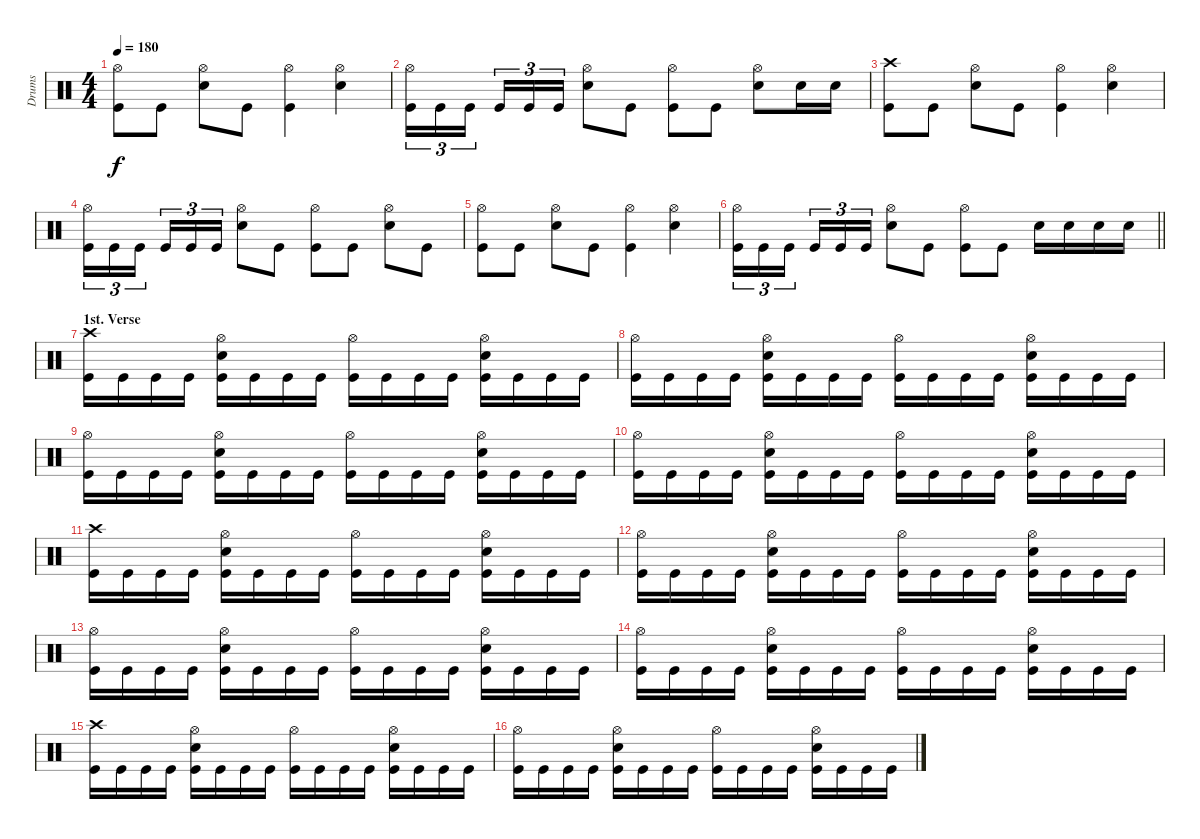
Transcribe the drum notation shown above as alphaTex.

\track ("Drums" "Drums") {instrument percussion}
\staff {score}
\articulation defaults
\ts (4 4)
\tempo 180
\clef neutral
\ks c
("Hi-Hat (open)" "Kick (hit)").8{dy f} "Kick (hit)".8 ("Hi-Hat (open)" "Electric Snare (hit)").8 "Kick (hit)".8 ("Hi-Hat (open)" "Kick (hit)").4 ("Hi-Hat (open)" "Electric Snare (hit)").4 |
("Hi-Hat (open)" "Kick (hit)").16{tu (3 2)} "Kick (hit)".16{tu (3 2)} "Kick (hit)".16{tu (3 2) beam splitsecondary} "Kick (hit)".16{tu (3 2)} "Kick (hit)".16{tu (3 2)} "Kick (hit)".16{tu (3 2)} ("Hi-Hat (open)" "Electric Snare (hit)").8 "Kick (hit)".8 ("Hi-Hat (open)" "Kick (hit)").8 "Kick (hit)".8 ("Hi-Hat (open)" "Electric Snare (hit)").8 "Electric Snare (hit)".16 "Electric Snare (hit)".16 |
("Crash high (hit)" "Kick (hit)").8 "Kick (hit)".8 ("Hi-Hat (open)" "Electric Snare (hit)").8 "Kick (hit)".8 ("Hi-Hat (open)" "Kick (hit)").4 ("Hi-Hat (open)" "Electric Snare (hit)").4 |
("Hi-Hat (open)" "Kick (hit)").16{tu (3 2)} "Kick (hit)".16{tu (3 2)} "Kick (hit)".16{tu (3 2) beam splitsecondary} "Kick (hit)".16{tu (3 2)} "Kick (hit)".16{tu (3 2)} "Kick (hit)".16{tu (3 2)} ("Hi-Hat (open)" "Electric Snare (hit)").8 "Kick (hit)".8 ("Hi-Hat (open)" "Kick (hit)").8 "Kick (hit)".8 ("Hi-Hat (open)" "Electric Snare (hit)").8 "Kick (hit)".8 |
("Hi-Hat (open)" "Kick (hit)").8 "Kick (hit)".8 ("Hi-Hat (open)" "Electric Snare (hit)").8 "Kick (hit)".8 ("Hi-Hat (open)" "Kick (hit)").4 ("Hi-Hat (open)" "Electric Snare (hit)").4 |
\barLineRight lightlight
("Hi-Hat (open)" "Kick (hit)").16{tu (3 2)} "Kick (hit)".16{tu (3 2)} "Kick (hit)".16{tu (3 2) beam splitsecondary} "Kick (hit)".16{tu (3 2)} "Kick (hit)".16{tu (3 2)} "Kick (hit)".16{tu (3 2)} ("Hi-Hat (open)" "Electric Snare (hit)").8 "Kick (hit)".8 ("Hi-Hat (open)" "Kick (hit)").8 "Kick (hit)".8 "Electric Snare (hit)".16 "Electric Snare (hit)".16 "Electric Snare (hit)".16 "Electric Snare (hit)".16 |
\section ("" "1st. Verse")
("Crash high (hit)" "Kick (hit)").16 "Kick (hit)".16 "Kick (hit)".16 "Kick (hit)".16 ("Hi-Hat (open)" "Electric Snare (hit)" "Kick (hit)").16 "Kick (hit)".16 "Kick (hit)".16 "Kick (hit)".16 ("Hi-Hat (open)" "Kick (hit)").16 "Kick (hit)".16 "Kick (hit)".16 "Kick (hit)".16 ("Hi-Hat (open)" "Electric Snare (hit)" "Kick (hit)").16 "Kick (hit)".16 "Kick (hit)".16 "Kick (hit)".16 |
("Hi-Hat (open)" "Kick (hit)").16 "Kick (hit)".16 "Kick (hit)".16 "Kick (hit)".16 ("Hi-Hat (open)" "Electric Snare (hit)" "Kick (hit)").16 "Kick (hit)".16 "Kick (hit)".16 "Kick (hit)".16 ("Hi-Hat (open)" "Kick (hit)").16 "Kick (hit)".16 "Kick (hit)".16 "Kick (hit)".16 ("Hi-Hat (open)" "Electric Snare (hit)" "Kick (hit)").16 "Kick (hit)".16 "Kick (hit)".16 "Kick (hit)".16 |
("Hi-Hat (open)" "Kick (hit)").16 "Kick (hit)".16 "Kick (hit)".16 "Kick (hit)".16 ("Hi-Hat (open)" "Electric Snare (hit)" "Kick (hit)").16 "Kick (hit)".16 "Kick (hit)".16 "Kick (hit)".16 ("Hi-Hat (open)" "Kick (hit)").16 "Kick (hit)".16 "Kick (hit)".16 "Kick (hit)".16 ("Hi-Hat (open)" "Electric Snare (hit)" "Kick (hit)").16 "Kick (hit)".16 "Kick (hit)".16 "Kick (hit)".16 |
("Hi-Hat (open)" "Kick (hit)").16 "Kick (hit)".16 "Kick (hit)".16 "Kick (hit)".16 ("Hi-Hat (open)" "Electric Snare (hit)" "Kick (hit)").16 "Kick (hit)".16 "Kick (hit)".16 "Kick (hit)".16 ("Hi-Hat (open)" "Kick (hit)").16 "Kick (hit)".16 "Kick (hit)".16 "Kick (hit)".16 ("Hi-Hat (open)" "Electric Snare (hit)" "Kick (hit)").16 "Kick (hit)".16 "Kick (hit)".16 "Kick (hit)".16 |
("Crash high (hit)" "Kick (hit)").16 "Kick (hit)".16 "Kick (hit)".16 "Kick (hit)".16 ("Hi-Hat (open)" "Electric Snare (hit)" "Kick (hit)").16 "Kick (hit)".16 "Kick (hit)".16 "Kick (hit)".16 ("Hi-Hat (open)" "Kick (hit)").16 "Kick (hit)".16 "Kick (hit)".16 "Kick (hit)".16 ("Hi-Hat (open)" "Electric Snare (hit)" "Kick (hit)").16 "Kick (hit)".16 "Kick (hit)".16 "Kick (hit)".16 |
("Hi-Hat (open)" "Kick (hit)").16 "Kick (hit)".16 "Kick (hit)".16 "Kick (hit)".16 ("Hi-Hat (open)" "Electric Snare (hit)" "Kick (hit)").16 "Kick (hit)".16 "Kick (hit)".16 "Kick (hit)".16 ("Hi-Hat (open)" "Kick (hit)").16 "Kick (hit)".16 "Kick (hit)".16 "Kick (hit)".16 ("Hi-Hat (open)" "Electric Snare (hit)" "Kick (hit)").16 "Kick (hit)".16 "Kick (hit)".16 "Kick (hit)".16 |
("Hi-Hat (open)" "Kick (hit)").16 "Kick (hit)".16 "Kick (hit)".16 "Kick (hit)".16 ("Hi-Hat (open)" "Electric Snare (hit)" "Kick (hit)").16 "Kick (hit)".16 "Kick (hit)".16 "Kick (hit)".16 ("Hi-Hat (open)" "Kick (hit)").16 "Kick (hit)".16 "Kick (hit)".16 "Kick (hit)".16 ("Hi-Hat (open)" "Electric Snare (hit)" "Kick (hit)").16 "Kick (hit)".16 "Kick (hit)".16 "Kick (hit)".16 |
("Hi-Hat (open)" "Kick (hit)").16 "Kick (hit)".16 "Kick (hit)".16 "Kick (hit)".16 ("Hi-Hat (open)" "Electric Snare (hit)" "Kick (hit)").16 "Kick (hit)".16 "Kick (hit)".16 "Kick (hit)".16 ("Hi-Hat (open)" "Kick (hit)").16 "Kick (hit)".16 "Kick (hit)".16 "Kick (hit)".16 ("Hi-Hat (open)" "Electric Snare (hit)" "Kick (hit)").16 "Kick (hit)".16 "Kick (hit)".16 "Kick (hit)".16 |
("Crash high (hit)" "Kick (hit)").16 "Kick (hit)".16 "Kick (hit)".16 "Kick (hit)".16 ("Hi-Hat (open)" "Electric Snare (hit)" "Kick (hit)").16 "Kick (hit)".16 "Kick (hit)".16 "Kick (hit)".16 ("Hi-Hat (open)" "Kick (hit)").16 "Kick (hit)".16 "Kick (hit)".16 "Kick (hit)".16 ("Hi-Hat (open)" "Electric Snare (hit)" "Kick (hit)").16 "Kick (hit)".16 "Kick (hit)".16 "Kick (hit)".16 |
("Hi-Hat (open)" "Kick (hit)").16 "Kick (hit)".16 "Kick (hit)".16 "Kick (hit)".16 ("Hi-Hat (open)" "Electric Snare (hit)" "Kick (hit)").16 "Kick (hit)".16 "Kick (hit)".16 "Kick (hit)".16 ("Hi-Hat (open)" "Kick (hit)").16 "Kick (hit)".16 "Kick (hit)".16 "Kick (hit)".16 ("Hi-Hat (open)" "Electric Snare (hit)" "Kick (hit)").16 "Kick (hit)".16 "Kick (hit)".16 "Kick (hit)".16
